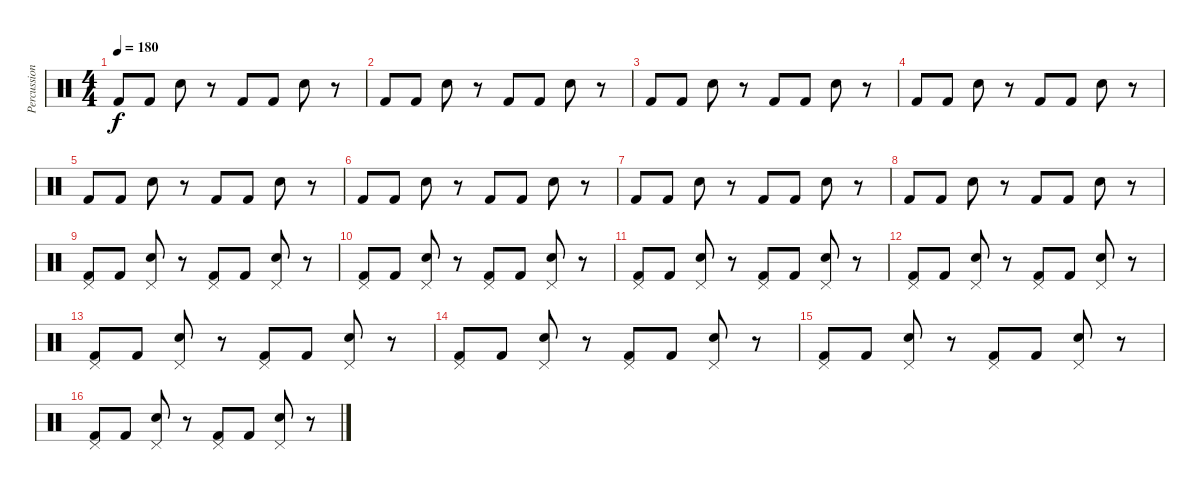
\track ("Percussion" "Percussion") {instrument percussion}
\staff {score}
\articulation defaults
\ts (4 4)
\tempo 180
\clef neutral
\ks c "Kick (hit) 2".8{dy f} "Kick (hit) 2".8 "Electric Snare (hit)".8
r.8 "Kick (hit) 2".8 "Kick (hit) 2".8 "Electric Snare (hit)".8 r.8 |
"Kick (hit) 2".8 "Kick (hit) 2".8 "Electric Snare (hit)".8 r.8 "Kick (hit) 2".8 "Kick (hit) 2".8 "Electric Snare (hit)".8 r.8 |
"Kick (hit) 2".8 "Kick (hit) 2".8 "Electric Snare (hit)".8 r.8 "Kick (hit) 2".8 "Kick (hit) 2".8 "Electric Snare (hit)".8 r.8 |
"Kick (hit) 2".8 "Kick (hit) 2".8 "Electric Snare (hit)".8 r.8 "Kick (hit) 2".8 "Kick (hit) 2".8 "Electric Snare (hit)".8 r.8 |
"Kick (hit) 2".8 "Kick (hit) 2".8 "Electric Snare (hit)".8 r.8 "Kick (hit) 2".8 "Kick (hit) 2".8 "Electric Snare (hit)".8 r.8 |
"Kick (hit) 2".8 "Kick (hit) 2".8 "Electric Snare (hit)".8 r.8 "Kick (hit) 2".8 "Kick (hit) 2".8 "Electric Snare (hit)".8 r.8 |
"Kick (hit) 2".8 "Kick (hit) 2".8 "Electric Snare (hit)".8 r.8 "Kick (hit) 2".8 "Kick (hit) 2".8 "Electric Snare (hit)".8 r.8 |
"Kick (hit) 2".8 "Kick (hit) 2".8 "Electric Snare (hit)".8 r.8 "Kick (hit) 2".8 "Kick (hit) 2".8 "Electric Snare (hit)".8 r.8 |
("Pedal Hi-Hat (hit)" "Kick (hit) 2").8 "Kick (hit) 2".8 ("Pedal Hi-Hat (hit)" "Electric Snare (hit)").8 r.8 ("Pedal Hi-Hat (hit)" "Kick (hit) 2").8 "Kick (hit) 2".8 ("Pedal Hi-Hat (hit)" "Electric Snare (hit)").8 r.8 |
("Pedal Hi-Hat (hit)" "Kick (hit) 2").8 "Kick (hit) 2".8 ("Pedal Hi-Hat (hit)" "Electric Snare (hit)").8 r.8 ("Pedal Hi-Hat (hit)" "Kick (hit) 2").8 "Kick (hit) 2".8 ("Pedal Hi-Hat (hit)" "Electric Snare (hit)").8 r.8 |
("Pedal Hi-Hat (hit)" "Kick (hit) 2").8 "Kick (hit) 2".8 ("Pedal Hi-Hat (hit)" "Electric Snare (hit)").8 r.8 ("Pedal Hi-Hat (hit)" "Kick (hit) 2").8 "Kick (hit) 2".8 ("Pedal Hi-Hat (hit)" "Electric Snare (hit)").8 r.8 |
("Pedal Hi-Hat (hit)" "Kick (hit) 2").8 "Kick (hit) 2".8 ("Pedal Hi-Hat (hit)" "Electric Snare (hit)").8 r.8 ("Pedal Hi-Hat (hit)" "Kick (hit) 2").8 "Kick (hit) 2".8 ("Pedal Hi-Hat (hit)" "Electric Snare (hit)").8 r.8 |
("Pedal Hi-Hat (hit)" "Kick (hit) 2").8 "Kick (hit) 2".8 ("Pedal Hi-Hat (hit)" "Electric Snare (hit)").8 r.8 ("Pedal Hi-Hat (hit)" "Kick (hit) 2").8 "Kick (hit) 2".8 ("Pedal Hi-Hat (hit)" "Electric Snare (hit)").8 r.8 |
("Pedal Hi-Hat (hit)" "Kick (hit) 2").8 "Kick (hit) 2".8 ("Pedal Hi-Hat (hit)" "Electric Snare (hit)").8 r.8 ("Pedal Hi-Hat (hit)" "Kick (hit) 2").8 "Kick (hit) 2".8 ("Pedal Hi-Hat (hit)" "Electric Snare (hit)").8 r.8 |
("Pedal Hi-Hat (hit)" "Kick (hit) 2").8 "Kick (hit) 2".8 ("Pedal Hi-Hat (hit)" "Electric Snare (hit)").8 r.8 ("Pedal Hi-Hat (hit)" "Kick (hit) 2").8 "Kick (hit) 2".8 ("Pedal Hi-Hat (hit)" "Electric Snare (hit)").8 r.8 |
("Pedal Hi-Hat (hit)" "Kick (hit) 2").8 "Kick (hit) 2".8 ("Pedal Hi-Hat (hit)" "Electric Snare (hit)").8 r.8 ("Pedal Hi-Hat (hit)" "Kick (hit) 2").8 "Kick (hit) 2".8 ("Pedal Hi-Hat (hit)" "Electric Snare (hit)").8 r.8
